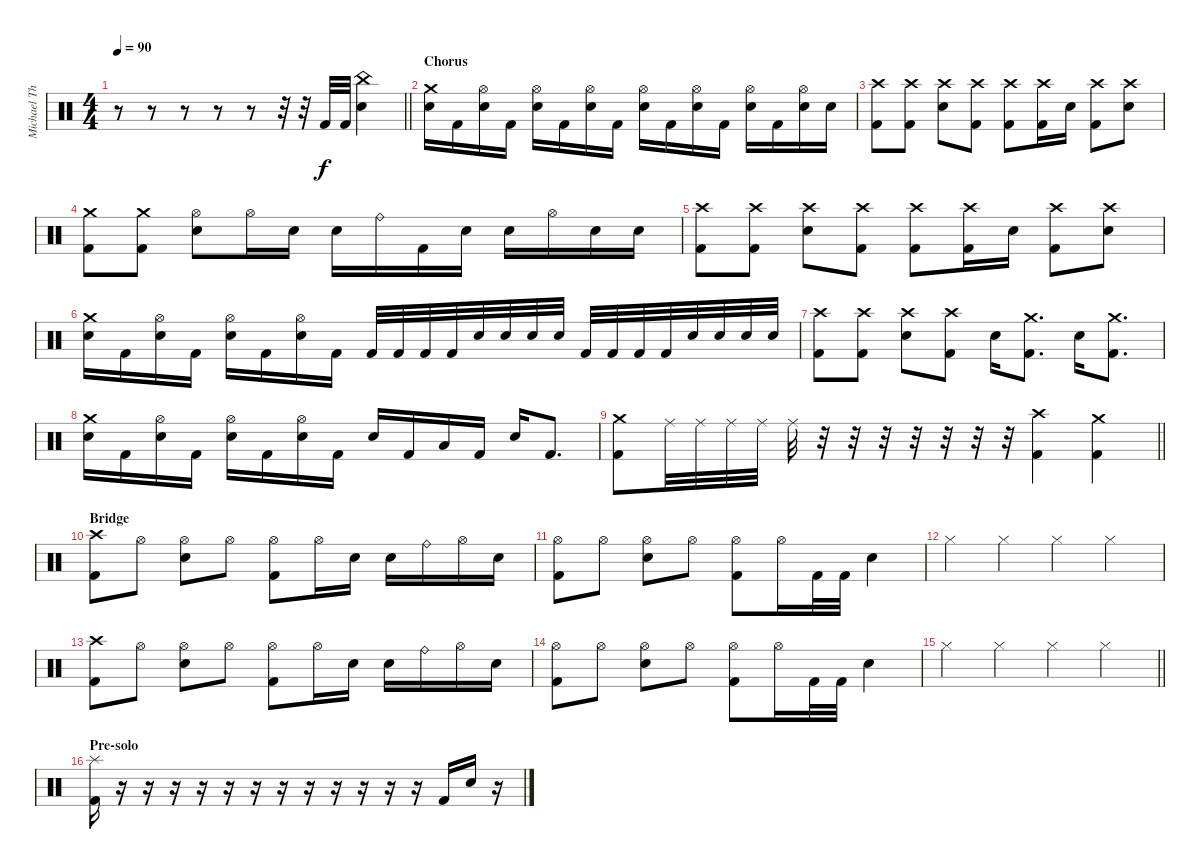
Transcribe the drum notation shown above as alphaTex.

\track ("Michael Thomas" "Michael Th") {instrument percussion}
\staff {score}
\articulation defaults
\ts (4 4)
\tempo 90
\clef neutral
\barLineRight lightlight
\ks c
r.8{dy f} r.8 r.8 r.8 r.8 r.32 r.32 "Kick (hit) 2".32 "Kick (hit) 2".32 ("China (hit)" "Electric Snare (hit)").4 |
\section ("" "Chorus")
("Crash medium (hit)" "Electric Snare (hit)").16 "Kick (hit) 2".16 ("Hi-Hat (open)" "Electric Snare (hit)").16 "Kick (hit) 2".16 ("Hi-Hat (open)" "Electric Snare (hit)").16 "Kick (hit) 2".16 ("Hi-Hat (open)" "Electric Snare (hit)").16 "Kick (hit) 2".16 ("Hi-Hat (open)" "Electric Snare (hit)").16 "Kick (hit) 2".16 ("Hi-Hat (open)" "Electric Snare (hit)").16 "Kick (hit) 2".16 ("Hi-Hat (open)" "Electric Snare (hit)").16 "Kick (hit) 2".16 ("Hi-Hat (open)" "Electric Snare (hit)").16 "Electric Snare (hit)".16 |
("Crash high (hit)" "Kick (hit) 2").8 ("Crash high (hit)" "Kick (hit) 2").8 ("Crash high (hit)" "Electric Snare (hit)").8 ("Crash high (hit)" "Kick (hit) 2").8 ("Crash high (hit)" "Kick (hit) 2").8 ("Crash high (hit)" "Kick (hit) 2").16 "Electric Snare (hit)".16 ("Crash high (hit)" "Kick (hit) 2").8 ("Crash high (hit)" "Electric Snare (hit)").8 |
("Crash medium (hit)" "Kick (hit) 2").8 ("Crash medium (hit)" "Kick (hit) 2").8 ("Hi-Hat (open)" "Electric Snare (hit)").8 "Hi-Hat (open)".16 "Electric Snare (hit)".16 "Electric Snare (hit)".16 "Ride (bell)".16 "Kick (hit) 2".16 "Electric Snare (hit)".16 "Electric Snare (hit)".16 "Hi-Hat (open)".16 "Electric Snare (hit)".16 "Electric Snare (hit)".16 |
("Crash high (hit)" "Kick (hit) 2").8 ("Crash high (hit)" "Kick (hit) 2").8 ("Crash high (hit)" "Electric Snare (hit)").8 ("Crash high (hit)" "Kick (hit) 2").8 ("Crash high (hit)" "Kick (hit) 2").8 ("Crash high (hit)" "Kick (hit) 2").16 "Electric Snare (hit)".16 ("Crash high (hit)" "Kick (hit) 2").8 ("Crash high (hit)" "Electric Snare (hit)").8 |
("Crash medium (hit)" "Electric Snare (hit)").16 "Kick (hit) 2".16 ("Hi-Hat (open)" "Electric Snare (hit)").16 "Kick (hit) 2".16 ("Hi-Hat (open)" "Electric Snare (hit)").16 "Kick (hit) 2".16 ("Hi-Hat (open)" "Electric Snare (hit)").16 "Kick (hit) 2".16 "Kick (hit) 2".32 "Kick (hit) 2".32 "Kick (hit) 2".32 "Kick (hit) 2".32 "Electric Snare (hit)".32 "Electric Snare (hit)".32 "Electric Snare (hit)".32 "Electric Snare (hit)".32 "Kick (hit) 2".32 "Kick (hit) 2".32 "Kick (hit) 2".32 "Kick (hit) 2".32 "Electric Snare (hit)".32 "Electric Snare (hit)".32 "Electric Snare (hit)".32 "Electric Snare (hit)".32 |
("Crash high (hit)" "Kick (hit) 2").8 ("Crash high (hit)" "Kick (hit) 2").8 ("Crash high (hit)" "Electric Snare (hit)").8 ("Crash high (hit)" "Kick (hit) 2").8 "Electric Snare (hit)".16 ("Crash medium (hit)" "Kick (hit) 2").8{d} "Electric Snare (hit)".16 ("Crash medium (hit)" "Kick (hit) 2").8{d} |
("Crash medium (hit)" "Electric Snare (hit)").16 "Kick (hit) 2".16 ("Hi-Hat (open)" "Electric Snare (hit)").16 "Kick (hit) 2".16 ("Hi-Hat (open)" "Electric Snare (hit)").16 "Kick (hit) 2".16 ("Hi-Hat (open)" "Electric Snare (hit)").16 "Kick (hit) 2".16 "Electric Snare (hit)".16 "Kick (hit) 2".16 "Low Floor Tom (hit)".16 "Kick (hit) 2".16 "Electric Snare (hit)".16 "Kick (hit) 2".8{d} |
\barLineRight lightlight
("Crash medium (hit)" "Kick (hit) 2").8 "Ride (middle)".32 "Ride (middle)".32 "Ride (middle)".32 "Ride (middle)".32 "Ride (middle)".32 r.32 r.32 r.32 r.32 r.32 r.32 r.32 ("Crash high (hit)" "Kick (hit) 2").4 ("Crash medium (hit)" "Kick (hit) 2").4 |
\section ("" "Bridge")
("Crash high (hit)" "Kick (hit) 2").8 "Hi-Hat (open)".8 ("Hi-Hat (open)" "Electric Snare (hit)").8 "Hi-Hat (open)".8 ("Hi-Hat (open)" "Kick (hit) 2").8 "Hi-Hat (open)".16 "Electric Snare (hit)".16 "Electric Snare (hit)".16 "Ride (bell)".16 "Hi-Hat (open)".16 "Electric Snare (hit)".16 |
("Hi-Hat (open)" "Kick (hit) 2").8 "Hi-Hat (open)".8 ("Hi-Hat (open)" "Electric Snare (hit)").8 "Hi-Hat (open)".8 ("Hi-Hat (open)" "Kick (hit) 2").8 "Hi-Hat (open)".16 "Kick (hit) 2".32 "Kick (hit) 2".32 "Electric Snare (hit)".4 |
"Hi-Hat (closed)".4 "Hi-Hat (closed)".4 "Hi-Hat (closed)".4 "Hi-Hat (closed)".4 |
("Crash high (hit)" "Kick (hit) 2").8 "Hi-Hat (open)".8 ("Hi-Hat (open)" "Electric Snare (hit)").8 "Hi-Hat (open)".8 ("Hi-Hat (open)" "Kick (hit) 2").8 "Hi-Hat (open)".16 "Electric Snare (hit)".16 "Electric Snare (hit)".16 "Ride (bell)".16 "Hi-Hat (open)".16 "Electric Snare (hit)".16 |
("Hi-Hat (open)" "Kick (hit) 2").8 "Hi-Hat (open)".8 ("Hi-Hat (open)" "Electric Snare (hit)").8 "Hi-Hat (open)".8 ("Hi-Hat (open)" "Kick (hit) 2").8 "Hi-Hat (open)".16 "Kick (hit) 2".32 "Kick (hit) 2".32 "Electric Snare (hit)".4 |
\barLineRight lightlight "Hi-Hat (closed)".4 "Hi-Hat (closed)".4 "Hi-Hat (closed)".4 "Hi-Hat (closed)".4
|
\section ("" "Pre-solo ")
("Splash (hit)" "Kick (hit) 2").16 r.16 r.16 r.16 r.16 r.16 r.16 r.16 r.16 r.16 r.16 r.16 r.16 "Kick (hit) 2".16 "Electric Snare (hit)".16 r.16
